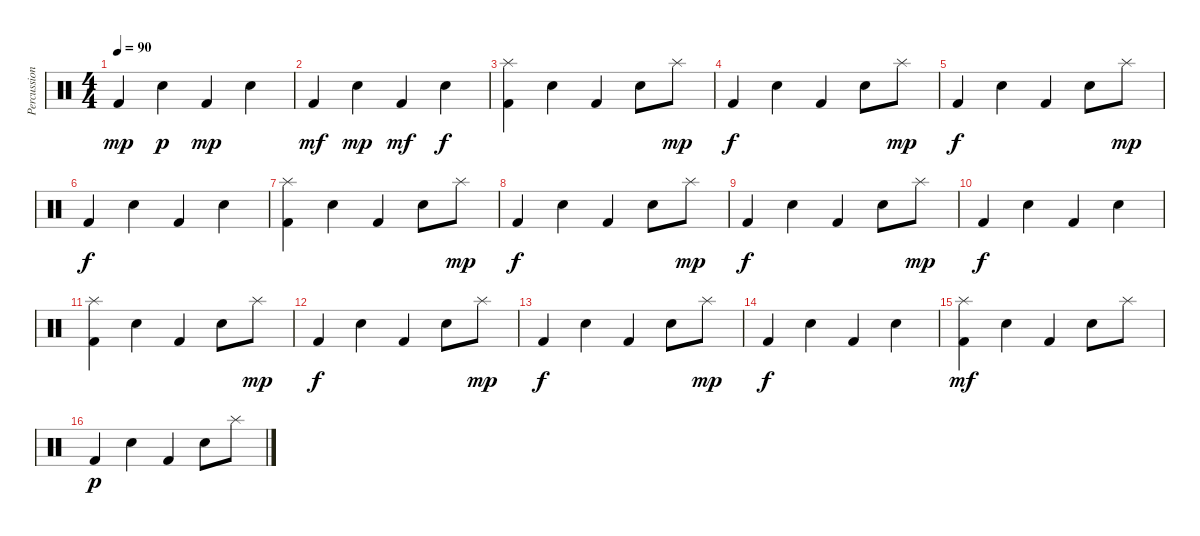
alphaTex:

\track ("Percussion" "Percussion") {instrument percussion}
\staff {score}
\articulation defaults
\ts (4 4)
\tempo 90
\clef neutral
\ks c "Kick (hit) 2".4{dy mp} "Electric Snare (hit)".4{dy p} "Kick (hit) 2".4{dy mp} "Electric Snare (hit)".4
|
"Kick (hit) 2".4{dy mf} "Electric Snare (hit)".4{dy mp} "Kick (hit) 2".4{dy mf} "Electric Snare (hit)".4{dy f} |
("Kick (hit) 2" "Splash (hit)").4 "Electric Snare (hit)".4 "Kick (hit) 2".4 "Electric Snare (hit)".8 "Splash (hit)".8{dy mp} |
"Kick (hit) 2".4{dy f} "Electric Snare (hit)".4 "Kick (hit) 2".4 "Electric Snare (hit)".8 "Splash (hit)".8{dy mp} |
"Kick (hit) 2".4{dy f} "Electric Snare (hit)".4 "Kick (hit) 2".4 "Electric Snare (hit)".8 "Splash (hit)".8{dy mp} |
"Kick (hit) 2".4{dy f} "Electric Snare (hit)".4 "Kick (hit) 2".4 "Electric Snare (hit)".4 |
("Kick (hit) 2" "Splash (hit)").4 "Electric Snare (hit)".4 "Kick (hit) 2".4 "Electric Snare (hit)".8 "Splash (hit)".8{dy mp} |
"Kick (hit) 2".4{dy f} "Electric Snare (hit)".4 "Kick (hit) 2".4 "Electric Snare (hit)".8 "Splash (hit)".8{dy mp} |
"Kick (hit) 2".4{dy f} "Electric Snare (hit)".4 "Kick (hit) 2".4 "Electric Snare (hit)".8 "Splash (hit)".8{dy mp} |
"Kick (hit) 2".4{dy f} "Electric Snare (hit)".4 "Kick (hit) 2".4 "Electric Snare (hit)".4 |
("Kick (hit) 2" "Splash (hit)").4 "Electric Snare (hit)".4 "Kick (hit) 2".4 "Electric Snare (hit)".8 "Splash (hit)".8{dy mp} |
"Kick (hit) 2".4{dy f} "Electric Snare (hit)".4 "Kick (hit) 2".4 "Electric Snare (hit)".8 "Splash (hit)".8{dy mp} |
"Kick (hit) 2".4{dy f} "Electric Snare (hit)".4 "Kick (hit) 2".4 "Electric Snare (hit)".8 "Splash (hit)".8{dy mp} |
"Kick (hit) 2".4{dy f} "Electric Snare (hit)".4 "Kick (hit) 2".4 "Electric Snare (hit)".4 |
("Kick (hit) 2" "Splash (hit)").4{dy mf} "Electric Snare (hit)".4 "Kick (hit) 2".4 "Electric Snare (hit)".8 "Splash (hit)".8 |
"Kick (hit) 2".4{dy p} "Electric Snare (hit)".4 "Kick (hit) 2".4 "Electric Snare (hit)".8 "Splash (hit)".8
